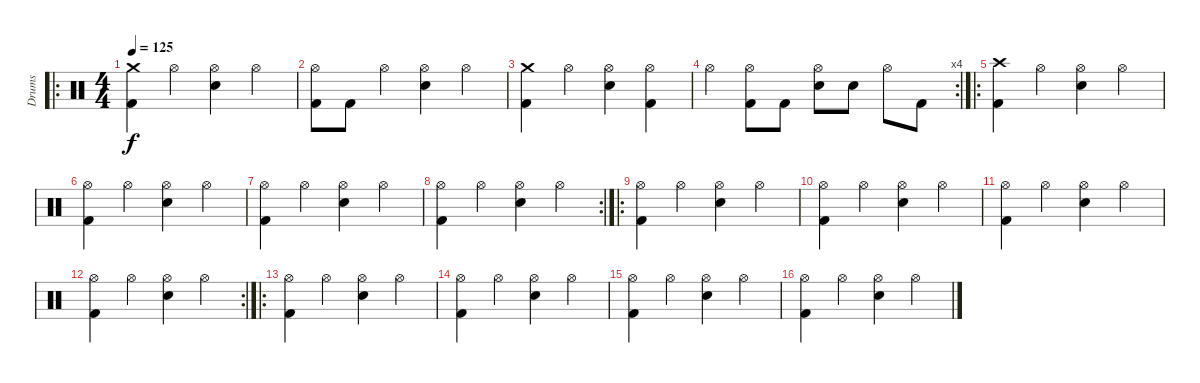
\track ("Drums" "Drums") {instrument percussion}
\staff {score}
\articulation defaults
\ro
\ts (4 4)
\tempo 125
\clef neutral
\ks c
("Crash medium (hit)" "Kick (hit) 2").4{dy f} "Hi-Hat (open)".4 ("Hi-Hat (open)" "Electric Snare (hit)").4 "Hi-Hat (open)".4 |
("Hi-Hat (open)" "Kick (hit) 2").8 "Kick (hit) 2".8 "Hi-Hat (open)".4 ("Hi-Hat (open)" "Electric Snare (hit)").4 "Hi-Hat (open)".4 |
("Crash medium (hit)" "Kick (hit) 2").4 "Hi-Hat (open)".4 ("Hi-Hat (open)" "Electric Snare (hit)").4 ("Hi-Hat (open)" "Kick (hit) 2").4 |
\rc 4 "Hi-Hat (open)".4
("Hi-Hat (open)" "Kick (hit) 2").8 "Kick (hit) 2".8 ("Hi-Hat (open)" "Electric Snare (hit)").8 "Electric Snare (hit)".8 "Hi-Hat (open)".8 "Kick (hit) 2".8 |
\ro
("Crash high (hit)" "Kick (hit) 2").4 "Hi-Hat (open)".4 ("Hi-Hat (open)" "Electric Snare (hit)").4 "Hi-Hat (open)".4 |
("Hi-Hat (open)" "Kick (hit) 2").4 "Hi-Hat (open)".4 ("Hi-Hat (open)" "Electric Snare (hit)").4 "Hi-Hat (open)".4 |
("Hi-Hat (open)" "Kick (hit) 2").4 "Hi-Hat (open)".4 ("Hi-Hat (open)" "Electric Snare (hit)").4 "Hi-Hat (open)".4 |
\rc 2
("Hi-Hat (open)" "Kick (hit) 2").4 "Hi-Hat (open)".4 ("Hi-Hat (open)" "Electric Snare (hit)").4 "Hi-Hat (open)".4 |
\ro
("Hi-Hat (open)" "Kick (hit) 2").4 "Hi-Hat (open)".4 ("Hi-Hat (open)" "Electric Snare (hit)").4 "Hi-Hat (open)".4 |
("Hi-Hat (open)" "Kick (hit) 2").4 "Hi-Hat (open)".4 ("Hi-Hat (open)" "Electric Snare (hit)").4 "Hi-Hat (open)".4 |
("Hi-Hat (open)" "Kick (hit) 2").4 "Hi-Hat (open)".4 ("Hi-Hat (open)" "Electric Snare (hit)").4 "Hi-Hat (open)".4 |
\rc 2
("Hi-Hat (open)" "Kick (hit) 2").4 "Hi-Hat (open)".4 ("Hi-Hat (open)" "Electric Snare (hit)").4 "Hi-Hat (open)".4 |
\ro
("Hi-Hat (open)" "Kick (hit) 2").4 "Hi-Hat (open)".4 ("Hi-Hat (open)" "Electric Snare (hit)").4 "Hi-Hat (open)".4 |
("Hi-Hat (open)" "Kick (hit) 2").4 "Hi-Hat (open)".4 ("Hi-Hat (open)" "Electric Snare (hit)").4 "Hi-Hat (open)".4 |
("Hi-Hat (open)" "Kick (hit) 2").4 "Hi-Hat (open)".4 ("Hi-Hat (open)" "Electric Snare (hit)").4 "Hi-Hat (open)".4 |
("Hi-Hat (open)" "Kick (hit) 2").4 "Hi-Hat (open)".4 ("Hi-Hat (open)" "Electric Snare (hit)").4 "Hi-Hat (open)".4
